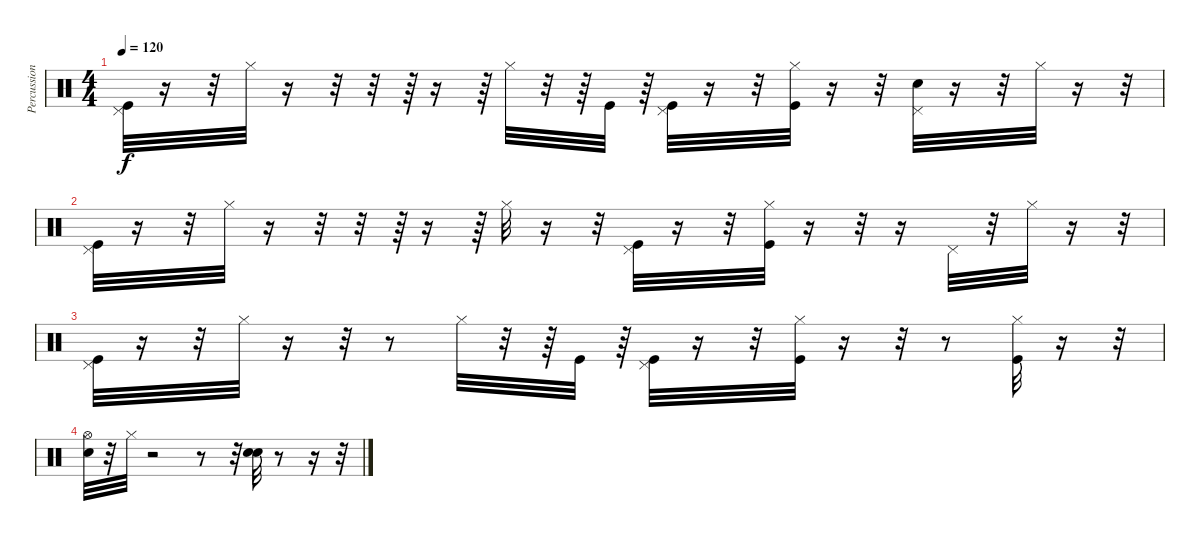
\track ("Percussion" "Percussion") {instrument percussion}
\staff {score}
\articulation defaults
\ts (4 4)
\tempo 120
\clef neutral
\ks c
("Pedal Hi-Hat (hit)" "Kick (hit)").32{dy f} r.16 r.32 "Hi-Hat (closed)".32 r.16 r.32 r.32 r.64 r.16 r.64 "Hi-Hat (closed)".32 r.32 r.64 "Kick (hit)".32 r.64 ("Kick (hit)" "Pedal Hi-Hat (hit)").32 r.16 r.32 ("Kick (hit)" "Hi-Hat (closed)").32 r.16 r.32 ("Snare (hit) 2" "Pedal Hi-Hat (hit)").32 r.16 r.32 "Hi-Hat (closed)".32 r.16 r.32 |
("Pedal Hi-Hat (hit)" "Kick (hit)").32 r.16 r.32 "Hi-Hat (closed)".32 r.16 r.32 r.32 r.64 r.16 r.64 "Hi-Hat (closed)".32 r.16 r.32 ("Kick (hit)" "Pedal Hi-Hat (hit)").32 r.16 r.32 ("Kick (hit)" "Hi-Hat (closed)").32 r.16 r.32 r.16 "Pedal Hi-Hat (hit)".32 r.32 "Hi-Hat (closed)".32 r.16 r.32 |
("Pedal Hi-Hat (hit)" "Kick (hit)").32 r.16 r.32 "Hi-Hat (closed)".32 r.16 r.32 r.8 "Hi-Hat (closed)".32 r.32 r.64 "Kick (hit)".32 r.64 ("Kick (hit)" "Pedal Hi-Hat (hit)").32 r.16 r.32 ("Kick (hit)" "Hi-Hat (closed)").32 r.16 r.32 r.8 ("Kick (hit)" "Hi-Hat (closed)").32 r.16 r.32 |
("Hi-Hat (open)" "Snare (hit) 2").32 r.32 "Hi-Hat (closed)".32 r.2 r.8 r.32 ("Metronome (bell)" "Snare (hit) 2").32 r.8 r.16 r.32
